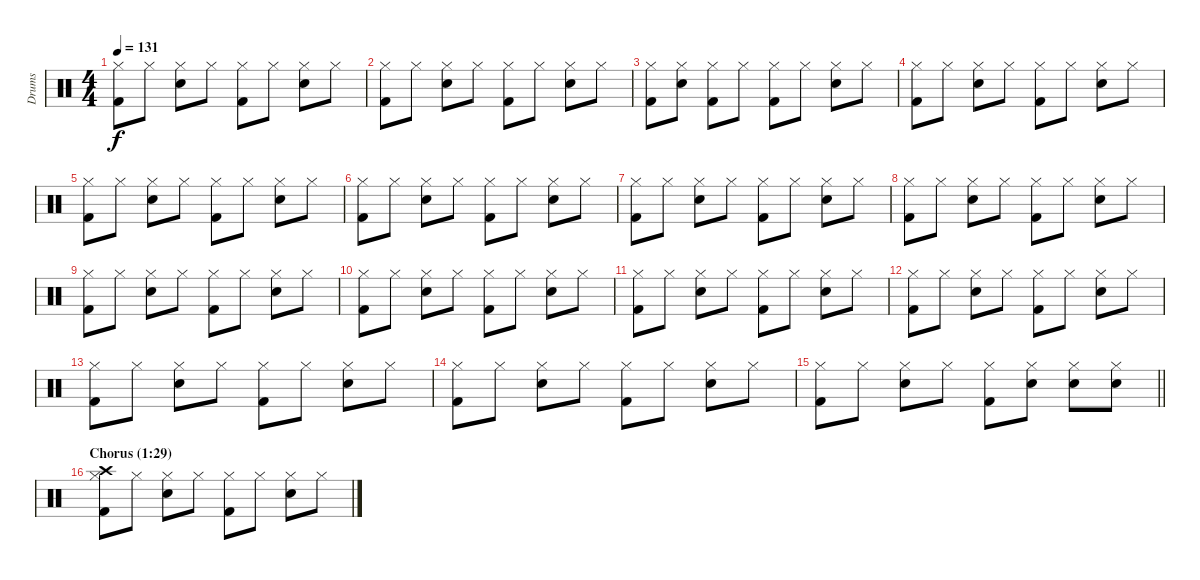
\track ("Drums" "Drums") {instrument percussion}
\staff {score}
\articulation defaults
\ts (4 4)
\tempo 131
\clef neutral
\ks c
("Kick (hit) 2" "Hi-Hat (closed)").8{dy f} "Hi-Hat (closed)".8 ("Hi-Hat (closed)" "Snare (hit) 2").8 "Hi-Hat (closed)".8 ("Hi-Hat (closed)" "Kick (hit) 2").8 "Hi-Hat (closed)".8 ("Hi-Hat (closed)" "Snare (hit) 2").8 "Hi-Hat (closed)".8 |
("Kick (hit) 2" "Hi-Hat (closed)").8 "Hi-Hat (closed)".8 ("Hi-Hat (closed)" "Snare (hit) 2").8 "Hi-Hat (closed)".8 ("Hi-Hat (closed)" "Kick (hit) 2").8 "Hi-Hat (closed)".8 ("Hi-Hat (closed)" "Snare (hit) 2").8 "Hi-Hat (closed)".8 |
("Kick (hit) 2" "Hi-Hat (closed)").8 ("Hi-Hat (closed)" "Snare (hit) 2").8 ("Hi-Hat (closed)" "Kick (hit) 2").8 "Hi-Hat (closed)".8 ("Hi-Hat (closed)" "Kick (hit) 2").8 "Hi-Hat (closed)".8 ("Hi-Hat (closed)" "Snare (hit) 2").8 "Hi-Hat (closed)".8 |
("Kick (hit) 2" "Hi-Hat (closed)").8 "Hi-Hat (closed)".8 ("Hi-Hat (closed)" "Snare (hit) 2").8 "Hi-Hat (closed)".8 ("Hi-Hat (closed)" "Kick (hit) 2").8 "Hi-Hat (closed)".8 ("Hi-Hat (closed)" "Snare (hit) 2").8 "Hi-Hat (closed)".8 |
("Kick (hit) 2" "Hi-Hat (closed)").8 "Hi-Hat (closed)".8 ("Hi-Hat (closed)" "Snare (hit) 2").8 "Hi-Hat (closed)".8 ("Hi-Hat (closed)" "Kick (hit) 2").8 "Hi-Hat (closed)".8 ("Hi-Hat (closed)" "Snare (hit) 2").8 "Hi-Hat (closed)".8 |
("Kick (hit) 2" "Hi-Hat (closed)").8 "Hi-Hat (closed)".8 ("Hi-Hat (closed)" "Snare (hit) 2").8 "Hi-Hat (closed)".8 ("Hi-Hat (closed)" "Kick (hit) 2").8 "Hi-Hat (closed)".8 ("Hi-Hat (closed)" "Snare (hit) 2").8 "Hi-Hat (closed)".8 |
("Kick (hit) 2" "Hi-Hat (closed)").8 "Hi-Hat (closed)".8 ("Hi-Hat (closed)" "Snare (hit) 2").8 "Hi-Hat (closed)".8 ("Hi-Hat (closed)" "Kick (hit) 2").8 "Hi-Hat (closed)".8 ("Hi-Hat (closed)" "Snare (hit) 2").8 "Hi-Hat (closed)".8 |
("Kick (hit) 2" "Hi-Hat (closed)").8 "Hi-Hat (closed)".8 ("Hi-Hat (closed)" "Snare (hit) 2").8 "Hi-Hat (closed)".8 ("Hi-Hat (closed)" "Kick (hit) 2").8 "Hi-Hat (closed)".8 ("Hi-Hat (closed)" "Snare (hit) 2").8 "Hi-Hat (closed)".8 |
("Kick (hit) 2" "Hi-Hat (closed)").8 "Hi-Hat (closed)".8 ("Hi-Hat (closed)" "Snare (hit) 2").8 "Hi-Hat (closed)".8 ("Hi-Hat (closed)" "Kick (hit) 2").8 "Hi-Hat (closed)".8 ("Hi-Hat (closed)" "Snare (hit) 2").8 "Hi-Hat (closed)".8 |
("Kick (hit) 2" "Hi-Hat (closed)").8 "Hi-Hat (closed)".8 ("Hi-Hat (closed)" "Snare (hit) 2").8 "Hi-Hat (closed)".8 ("Hi-Hat (closed)" "Kick (hit) 2").8 "Hi-Hat (closed)".8 ("Hi-Hat (closed)" "Snare (hit) 2").8 "Hi-Hat (closed)".8 |
("Kick (hit) 2" "Hi-Hat (closed)").8 "Hi-Hat (closed)".8 ("Hi-Hat (closed)" "Snare (hit) 2").8 "Hi-Hat (closed)".8 ("Hi-Hat (closed)" "Kick (hit) 2").8 "Hi-Hat (closed)".8 ("Hi-Hat (closed)" "Snare (hit) 2").8 "Hi-Hat (closed)".8 |
("Kick (hit) 2" "Hi-Hat (closed)").8 "Hi-Hat (closed)".8 ("Hi-Hat (closed)" "Snare (hit) 2").8 "Hi-Hat (closed)".8 ("Hi-Hat (closed)" "Kick (hit) 2").8 "Hi-Hat (closed)".8 ("Hi-Hat (closed)" "Snare (hit) 2").8 "Hi-Hat (closed)".8 |
("Kick (hit) 2" "Hi-Hat (closed)").8 "Hi-Hat (closed)".8 ("Hi-Hat (closed)" "Snare (hit) 2").8 "Hi-Hat (closed)".8 ("Hi-Hat (closed)" "Kick (hit) 2").8 "Hi-Hat (closed)".8 ("Hi-Hat (closed)" "Snare (hit) 2").8 "Hi-Hat (closed)".8 |
("Kick (hit) 2" "Hi-Hat (closed)").8 "Hi-Hat (closed)".8 ("Hi-Hat (closed)" "Snare (hit) 2").8 "Hi-Hat (closed)".8 ("Hi-Hat (closed)" "Kick (hit) 2").8 "Hi-Hat (closed)".8 ("Hi-Hat (closed)" "Snare (hit) 2").8 "Hi-Hat (closed)".8 |
\barLineRight lightlight
("Kick (hit) 2" "Hi-Hat (closed)").8 "Hi-Hat (closed)".8 ("Hi-Hat (closed)" "Snare (hit) 2").8 "Hi-Hat (closed)".8 ("Hi-Hat (closed)" "Kick (hit) 2").8 ("Hi-Hat (closed)" "Snare (hit) 2").8 ("Hi-Hat (closed)" "Snare (hit) 2").8 ("Hi-Hat (closed)" "Snare (hit) 2").8 |
\section ("" "Chorus (1:29)")
("Kick (hit) 2" "Hi-Hat (closed)" "Crash high (hit)").8 "Hi-Hat (closed)".8 ("Hi-Hat (closed)" "Snare (hit) 2").8 "Hi-Hat (closed)".8 ("Hi-Hat (closed)" "Kick (hit) 2").8 "Hi-Hat (closed)".8 ("Hi-Hat (closed)" "Snare (hit) 2").8 "Hi-Hat (closed)".8
